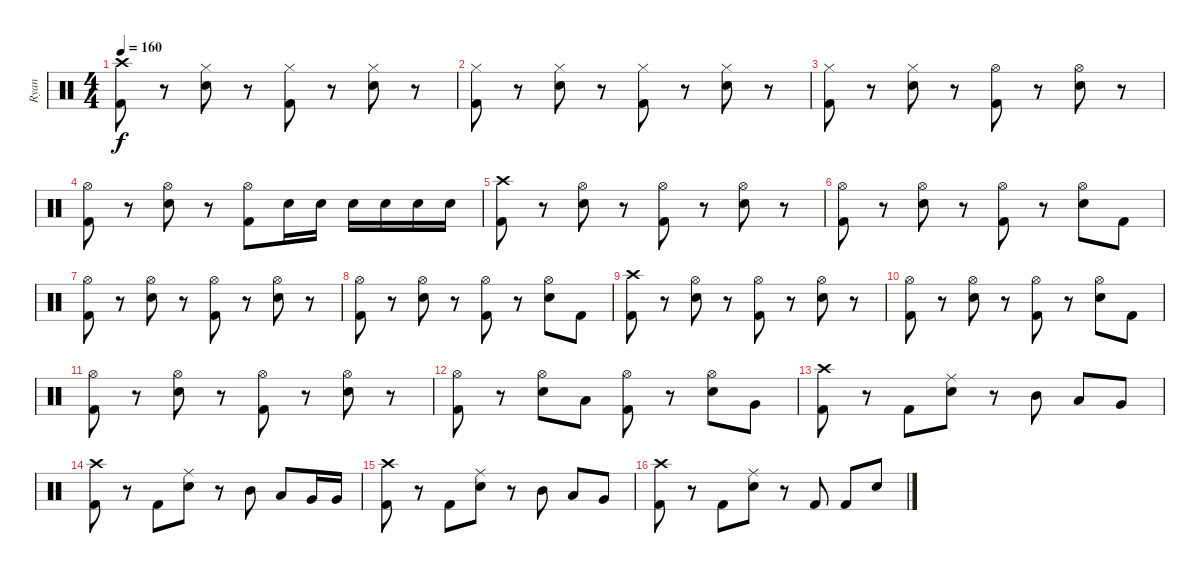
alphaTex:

\track ("Ryan" "Ryan") {instrument percussion}
\staff {score}
\articulation defaults
\ts (4 4)
\tempo 160
\clef neutral
\ks c
("Crash high (hit)" "Kick (hit) 2").8{dy f} r.8 ("Hi-Hat (closed)" "Snare (hit) 2").8 r.8 ("Hi-Hat (closed)" "Kick (hit) 2").8 r.8 ("Hi-Hat (closed)" "Snare (hit) 2").8 r.8 |
("Hi-Hat (closed)" "Kick (hit) 2").8 r.8 ("Hi-Hat (closed)" "Snare (hit) 2").8 r.8 ("Hi-Hat (closed)" "Kick (hit) 2").8 r.8 ("Hi-Hat (closed)" "Snare (hit) 2").8 r.8 |
("Hi-Hat (closed)" "Kick (hit) 2").8 r.8 ("Hi-Hat (closed)" "Snare (hit) 2").8 r.8 ("Hi-Hat (open)" "Kick (hit) 2").8 r.8 ("Hi-Hat (open)" "Snare (hit) 2").8 r.8 |
("Hi-Hat (open)" "Kick (hit) 2").8 r.8 ("Hi-Hat (open)" "Snare (hit) 2").8 r.8 ("Hi-Hat (open)" "Kick (hit) 2").8 "Snare (hit) 2".16 "Snare (hit) 2".16 "Snare (hit) 2".16 "Snare (hit) 2".16 "Snare (hit) 2".16 "Snare (hit) 2".16 |
("Crash high (hit)" "Kick (hit) 2").8 r.8 ("Hi-Hat (open)" "Snare (hit) 2").8 r.8 ("Hi-Hat (open)" "Kick (hit) 2").8 r.8 ("Hi-Hat (open)" "Snare (hit) 2").8 r.8 |
("Hi-Hat (open)" "Kick (hit) 2").8 r.8 ("Hi-Hat (open)" "Snare (hit) 2").8 r.8 ("Hi-Hat (open)" "Kick (hit) 2").8 r.8 ("Hi-Hat (open)" "Snare (hit) 2").8 "Kick (hit) 2".8 |
("Hi-Hat (open)" "Kick (hit) 2").8 r.8 ("Hi-Hat (open)" "Snare (hit) 2").8 r.8 ("Hi-Hat (open)" "Kick (hit) 2").8 r.8 ("Hi-Hat (open)" "Snare (hit) 2").8 r.8 |
("Hi-Hat (open)" "Kick (hit) 2").8 r.8 ("Hi-Hat (open)" "Snare (hit) 2").8 r.8 ("Hi-Hat (open)" "Kick (hit) 2").8 r.8 ("Hi-Hat (open)" "Snare (hit) 2").8 "Kick (hit) 2".8 |
("Crash high (hit)" "Kick (hit) 2").8 r.8 ("Hi-Hat (open)" "Snare (hit) 2").8 r.8 ("Hi-Hat (open)" "Kick (hit) 2").8 r.8 ("Hi-Hat (open)" "Snare (hit) 2").8 r.8 |
("Hi-Hat (open)" "Kick (hit) 2").8 r.8 ("Hi-Hat (open)" "Snare (hit) 2").8 r.8 ("Hi-Hat (open)" "Kick (hit) 2").8 r.8 ("Hi-Hat (open)" "Snare (hit) 2").8 "Kick (hit) 2".8 |
("Hi-Hat (open)" "Kick (hit) 2").8 r.8 ("Hi-Hat (open)" "Snare (hit) 2").8 r.8 ("Hi-Hat (open)" "Kick (hit) 2").8 r.8 ("Hi-Hat (open)" "Snare (hit) 2").8 r.8 |
("Hi-Hat (open)" "Kick (hit) 2").8 r.8 ("Hi-Hat (open)" "Snare (hit) 2").8 "Low Tom (hit)".8 ("Hi-Hat (open)" "Kick (hit) 2").8 r.8 ("Hi-Hat (open)" "Snare (hit) 2").8 "Very Low Tom (hit)".8 |
("Crash high (hit)" "Kick (hit) 2").8 r.8 "Kick (hit) 2".8 ("Ride (middle)" "Snare (hit) 2").8 r.8 "Mid Tom (hit)".8 "Low Tom (hit)".8 "Very Low Tom (hit)".8 |
("Crash high (hit)" "Kick (hit) 2").8 r.8 "Kick (hit) 2".8 ("Ride (middle)" "Snare (hit) 2").8 r.8 "Mid Tom (hit)".8 "Low Tom (hit)".8 "Very Low Tom (hit)".16 "Very Low Tom (hit)".16 |
("Crash high (hit)" "Kick (hit) 2").8 r.8 "Kick (hit) 2".8 ("Ride (middle)" "Snare (hit) 2").8 r.8 "Mid Tom (hit)".8 "Low Tom (hit)".8 "Very Low Tom (hit)".8 |
("Crash high (hit)" "Kick (hit) 2").8 r.8 "Kick (hit) 2".8 ("Ride (middle)" "Snare (hit) 2").8 r.8 "Kick (hit) 2".8 "Kick (hit) 2".8 "Snare (hit) 2".8
